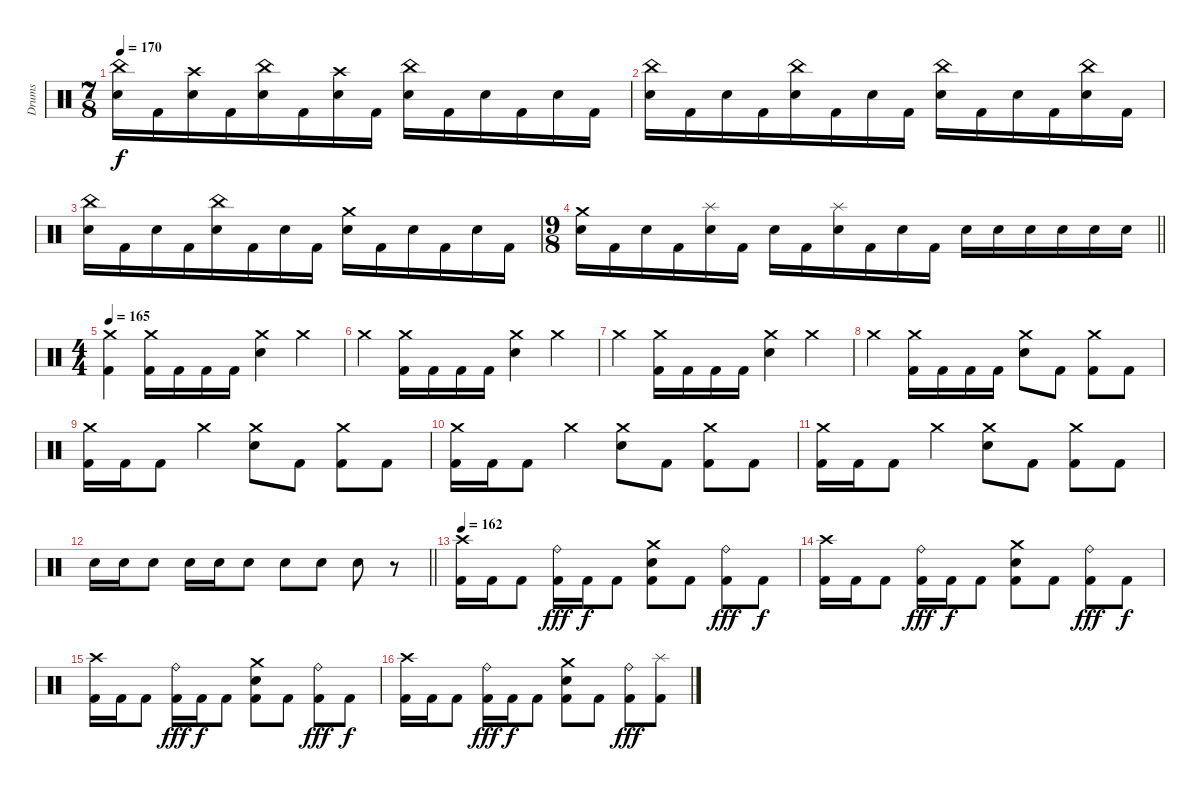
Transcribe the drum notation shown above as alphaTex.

\track ("Drums" "Drums") {instrument percussion}
\staff {score}
\articulation defaults
\ts (7 8)
\tempo 170
\clef neutral
\ks c
("China (hit)" "Electric Snare (hit)").16{dy f} "Kick (hit) 2".16 ("Crash high (hit)" "Electric Snare (hit)").16 "Kick (hit) 2".16 ("China (hit)" "Electric Snare (hit)").16 "Kick (hit) 2".16 ("Crash high (hit)" "Electric Snare (hit)").16 "Kick (hit) 2".16 ("China (hit)" "Electric Snare (hit)").16 "Kick (hit) 2".16 "Electric Snare (hit)".16 "Kick (hit) 2".16 "Electric Snare (hit)".16 "Kick (hit) 2".16 |
("China (hit)" "Electric Snare (hit)").16 "Kick (hit) 2".16 "Electric Snare (hit)".16 "Kick (hit) 2".16 ("China (hit)" "Electric Snare (hit)").16 "Kick (hit) 2".16 "Electric Snare (hit)".16 "Kick (hit) 2".16 ("China (hit)" "Electric Snare (hit)").16 "Kick (hit) 2".16 "Electric Snare (hit)".16 "Kick (hit) 2".16 ("China (hit)" "Electric Snare (hit)").16 "Kick (hit) 2".16 |
("China (hit)" "Electric Snare (hit)").16 "Kick (hit) 2".16 "Electric Snare (hit)".16 "Kick (hit) 2".16 ("China (hit)" "Electric Snare (hit)").16 "Kick (hit) 2".16 "Electric Snare (hit)".16 "Kick (hit) 2".16 ("Crash medium (hit)" "Electric Snare (hit)").16 "Kick (hit) 2".16 "Electric Snare (hit)".16 "Kick (hit) 2".16 "Electric Snare (hit)".16 "Kick (hit) 2".16 |
\ts (9 8)
\barLineRight lightlight
("Crash medium (hit)" "Electric Snare (hit)").16 "Kick (hit) 2".16 "Electric Snare (hit)".16 "Kick (hit) 2".16 ("Splash (hit)" "Electric Snare (hit)").16 "Kick (hit) 2".16 "Electric Snare (hit)".16 "Kick (hit) 2".16 ("Splash (hit)" "Electric Snare (hit)").16 "Kick (hit) 2".16 "Electric Snare (hit)".16 "Kick (hit) 2".16 "Electric Snare (hit)".16 "Electric Snare (hit)".16 "Electric Snare (hit)".16 "Electric Snare (hit)".16 "Electric Snare (hit)".16 "Electric Snare (hit)".16 |
\ts (4 4)
\tempo 165
("Crash medium (hit)" "Kick (hit) 2").4 ("Crash medium (hit)" "Kick (hit) 2").16 "Kick (hit) 2".16 "Kick (hit) 2".16 "Kick (hit) 2".16 ("Crash medium (hit)" "Electric Snare (hit)").4 "Crash medium (hit)".4 |
"Crash medium (hit)".4 ("Crash medium (hit)" "Kick (hit) 2").16 "Kick (hit) 2".16 "Kick (hit) 2".16 "Kick (hit) 2".16 ("Crash medium (hit)" "Electric Snare (hit)").4 "Crash medium (hit)".4 |
"Crash medium (hit)".4 ("Crash medium (hit)" "Kick (hit) 2").16 "Kick (hit) 2".16 "Kick (hit) 2".16 "Kick (hit) 2".16 ("Crash medium (hit)" "Electric Snare (hit)").4 "Crash medium (hit)".4 |
"Crash medium (hit)".4 ("Crash medium (hit)" "Kick (hit) 2").16 "Kick (hit) 2".16 "Kick (hit) 2".16 "Kick (hit) 2".16 ("Crash medium (hit)" "Electric Snare (hit)").8 "Kick (hit) 2".8 ("Crash medium (hit)" "Kick (hit) 2").8 "Kick (hit) 2".8 |
("Crash medium (hit)" "Kick (hit) 2").16 "Kick (hit) 2".16 "Kick (hit) 2".8 "Crash medium (hit)".4 ("Crash medium (hit)" "Electric Snare (hit)").8 "Kick (hit) 2".8 ("Crash medium (hit)" "Kick (hit) 2").8 "Kick (hit) 2".8 |
("Crash medium (hit)" "Kick (hit) 2").16 "Kick (hit) 2".16 "Kick (hit) 2".8 "Crash medium (hit)".4 ("Crash medium (hit)" "Electric Snare (hit)").8 "Kick (hit) 2".8 ("Crash medium (hit)" "Kick (hit) 2").8 "Kick (hit) 2".8 |
("Crash medium (hit)" "Kick (hit) 2").16 "Kick (hit) 2".16 "Kick (hit) 2".8 "Crash medium (hit)".4 ("Crash medium (hit)" "Electric Snare (hit)").8 "Kick (hit) 2".8 ("Crash medium (hit)" "Kick (hit) 2").8 "Kick (hit) 2".8 |
\barLineRight lightlight "Electric Snare (hit)".16 "Electric Snare (hit)".16 "Electric Snare (hit)".8 "Electric Snare (hit)".16 "Electric Snare (hit)".16 "Electric Snare (hit)".8 "Electric Snare (hit)".8 "Electric Snare (hit)".8 "Electric Snare (hit)".8
r.8 |
\tempo 162
("Crash high (hit)" "Kick (hit) 2").16 "Kick (hit) 2".16 "Kick (hit) 2".8 ("Ride (bell)" "Kick (hit) 2").16{dy fff} "Kick (hit) 2".16{dy f} "Kick (hit) 2".8 ("Crash medium (hit)" "Electric Snare (hit)" "Kick (hit) 2").8 "Kick (hit) 2".8 ("Ride (bell)" "Kick (hit) 2").8{dy fff} "Kick (hit) 2".8{dy f} |
("Crash high (hit)" "Kick (hit) 2").16 "Kick (hit) 2".16 "Kick (hit) 2".8 ("Ride (bell)" "Kick (hit) 2").16{dy fff} "Kick (hit) 2".16{dy f} "Kick (hit) 2".8 ("Crash medium (hit)" "Electric Snare (hit)" "Kick (hit) 2").8 "Kick (hit) 2".8 ("Ride (bell)" "Kick (hit) 2").8{dy fff} "Kick (hit) 2".8{dy f} |
("Crash high (hit)" "Kick (hit) 2").16 "Kick (hit) 2".16 "Kick (hit) 2".8 ("Ride (bell)" "Kick (hit) 2").16{dy fff} "Kick (hit) 2".16{dy f} "Kick (hit) 2".8 ("Crash medium (hit)" "Electric Snare (hit)" "Kick (hit) 2").8 "Kick (hit) 2".8 ("Ride (bell)" "Kick (hit) 2").8{dy fff} "Kick (hit) 2".8{dy f} |
("Crash high (hit)" "Kick (hit) 2").16 "Kick (hit) 2".16 "Kick (hit) 2".8 ("Ride (bell)" "Kick (hit) 2").16{dy fff} "Kick (hit) 2".16{dy f} "Kick (hit) 2".8 ("Crash medium (hit)" "Electric Snare (hit)" "Kick (hit) 2").8 "Kick (hit) 2".8 ("Ride (bell)" "Kick (hit) 2").8{dy fff} ("Splash (hit)" "Kick (hit) 2").8
